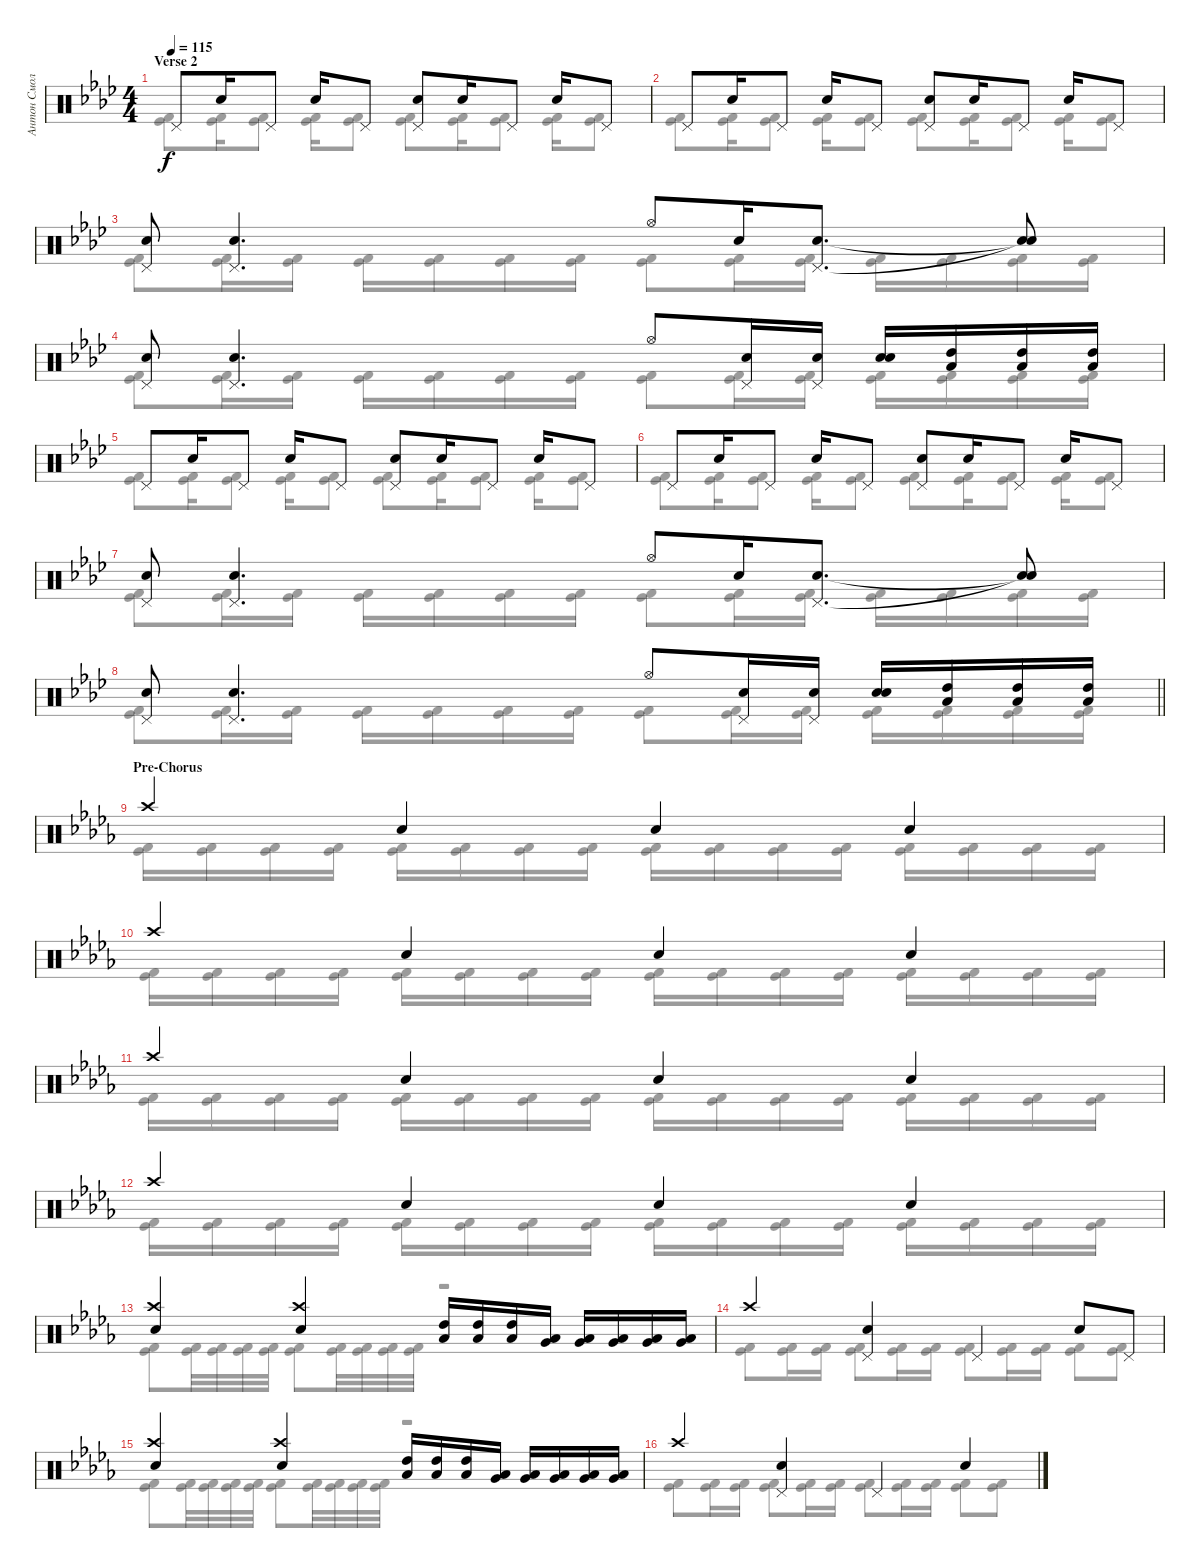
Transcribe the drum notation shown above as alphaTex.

\track ("Антон Смольянин" "Антон Смол") {instrument percussion}
\staff {score}
\articulation defaults
\voice
\ts (4 4)
\section ("" "Verse 2")
\tempo 115
\clef neutral
\ks ab "Pedal Hi-Hat (hit)".8{dy f} "Snare (hit) 2".16 "Pedal Hi-Hat (hit)".8 "Snare (hit) 2".16 "Pedal Hi-Hat (hit)".8
("Snare (hit) 2" "Pedal Hi-Hat (hit)").8 "Snare (hit) 2".16 "Pedal Hi-Hat (hit)".8 "Snare (hit) 2".16 "Pedal Hi-Hat (hit)".8 |
"Pedal Hi-Hat (hit)".8 "Snare (hit) 2".16 "Pedal Hi-Hat (hit)".8 "Snare (hit) 2".16 "Pedal Hi-Hat (hit)".8 ("Snare (hit) 2" "Pedal Hi-Hat (hit)").8 "Snare (hit) 2".16 "Pedal Hi-Hat (hit)".8 "Snare (hit) 2".16 "Pedal Hi-Hat (hit)".8 |
("Snare (hit) 2" "Pedal Hi-Hat (hit)").8 ("Snare (hit) 2" "Pedal Hi-Hat (hit)").4{d} "Hi-Hat (open)".8 "Snare (hit) 2".16 ("Snare (hit) 2" "Pedal Hi-Hat (hit)").8{d} ("Snare (hit)"{t} "Snare (hit)"{t}).8 |
("Snare (hit) 2" "Pedal Hi-Hat (hit)").8 ("Snare (hit) 2" "Pedal Hi-Hat (hit)").4{d} "Hi-Hat (open)".8 ("Snare (hit) 2" "Pedal Hi-Hat (hit)").16 ("Snare (hit) 2" "Pedal Hi-Hat (hit)").16 ("Snare (hit) 2" "Snare (hit) 2").16 ("Low Tom (hit)" "High Tom (hit)").16 ("Low Tom (hit)" "High Tom (hit)").16 ("Low Tom (hit)" "High Tom (hit)").16 |
"Pedal Hi-Hat (hit)".8 "Snare (hit) 2".16 "Pedal Hi-Hat (hit)".8 "Snare (hit) 2".16 "Pedal Hi-Hat (hit)".8 ("Snare (hit) 2" "Pedal Hi-Hat (hit)").8 "Snare (hit) 2".16 "Pedal Hi-Hat (hit)".8 "Snare (hit) 2".16 "Pedal Hi-Hat (hit)".8 |
"Pedal Hi-Hat (hit)".8 "Snare (hit) 2".16 "Pedal Hi-Hat (hit)".8 "Snare (hit) 2".16 "Pedal Hi-Hat (hit)".8 ("Snare (hit) 2" "Pedal Hi-Hat (hit)").8 "Snare (hit) 2".16 "Pedal Hi-Hat (hit)".8 "Snare (hit) 2".16 "Pedal Hi-Hat (hit)".8 |
("Snare (hit) 2" "Pedal Hi-Hat (hit)").8 ("Snare (hit) 2" "Pedal Hi-Hat (hit)").4{d} "Hi-Hat (open)".8 "Snare (hit) 2".16 ("Snare (hit) 2" "Pedal Hi-Hat (hit)").8{d} ("Snare (hit)"{t} "Snare (hit)"{t}).8 |
\barLineRight lightlight
("Snare (hit) 2" "Pedal Hi-Hat (hit)").8 ("Snare (hit) 2" "Pedal Hi-Hat (hit)").4{d} "Hi-Hat (open)".8 ("Snare (hit) 2" "Pedal Hi-Hat (hit)").16 ("Snare (hit) 2" "Pedal Hi-Hat (hit)").16 ("Snare (hit) 2" "Snare (hit) 2").16 ("Low Tom (hit)" "High Tom (hit)").16 ("Low Tom (hit)" "High Tom (hit)").16 ("Low Tom (hit)" "High Tom (hit)").16 |
\section ("" "Pre-Chorus")
\ks db "Crash high (hit)".4 "Electric Snare (hit)".4 "Electric Snare (hit)".4 "Electric Snare (hit)".4
|
"Crash high (hit)".4 "Electric Snare (hit)".4 "Electric Snare (hit)".4 "Electric Snare (hit)".4 |
"Crash high (hit)".4 "Electric Snare (hit)".4 "Electric Snare (hit)".4 "Electric Snare (hit)".4 |
"Crash high (hit)".4 "Electric Snare (hit)".4 "Electric Snare (hit)".4 "Electric Snare (hit)".4 |
("Electric Snare (hit)" "Crash high (hit)").4 ("Electric Snare (hit)" "Crash high (hit)").4 ("High Tom (hit)" "Low Tom (hit)").16 ("High Tom (hit)" "Low Tom (hit)").16 ("High Tom (hit)" "Low Tom (hit)").16 ("Low Tom (hit)" "Very Low Tom (hit)").16 ("Low Tom (hit)" "Very Low Tom (hit)").16 ("Low Tom (hit)" "Very Low Tom (hit)").16 ("Low Tom (hit)" "Very Low Tom (hit)").16 ("Low Tom (hit)" "Very Low Tom (hit)").16 |
"Crash high (hit)".4 ("Electric Snare (hit)" "Pedal Hi-Hat (hit)").4 "Pedal Hi-Hat (hit)".4 "Electric Snare (hit)".8 "Pedal Hi-Hat (hit)".8 |
("Electric Snare (hit)" "Crash high (hit)").4 ("Electric Snare (hit)" "Crash high (hit)").4 ("High Tom (hit)" "Low Tom (hit)").16 ("High Tom (hit)" "Low Tom (hit)").16 ("High Tom (hit)" "Low Tom (hit)").16 ("Low Tom (hit)" "Very Low Tom (hit)").16 ("Low Tom (hit)" "Very Low Tom (hit)").16 ("Low Tom (hit)" "Very Low Tom (hit)").16 ("Low Tom (hit)" "Very Low Tom (hit)").16 ("Low Tom (hit)" "Very Low Tom (hit)").16 |
"Crash high (hit)".4 ("Electric Snare (hit)" "Pedal Hi-Hat (hit)").4 "Pedal Hi-Hat (hit)".4 "Electric Snare (hit)".4
\voice
\clef neutral
\ottava regular
\simile none
\ks ab
("Kick (hit) 2" "Kick (hit)").8{dy f} ("Kick (hit) 2" "Kick (hit)").16 ("Kick (hit) 2" "Kick (hit)").8 ("Kick (hit) 2" "Kick (hit)").16 ("Kick (hit) 2" "Kick (hit)").8 ("Kick (hit) 2" "Kick (hit)").8 ("Kick (hit) 2" "Kick (hit)").16 ("Kick (hit) 2" "Kick (hit)").8 ("Kick (hit) 2" "Kick (hit)").16 ("Kick (hit) 2" "Kick (hit)").8 |
("Kick (hit) 2" "Kick (hit)").8 ("Kick (hit) 2" "Kick (hit)").16 ("Kick (hit) 2" "Kick (hit)").8 ("Kick (hit) 2" "Kick (hit)").16 ("Kick (hit) 2" "Kick (hit)").8 ("Kick (hit) 2" "Kick (hit)").8 ("Kick (hit) 2" "Kick (hit)").16 ("Kick (hit) 2" "Kick (hit)").8 ("Kick (hit) 2" "Kick (hit)").16 ("Kick (hit) 2" "Kick (hit)").8 |
("Kick (hit) 2" "Kick (hit)").8 ("Kick (hit) 2" "Kick (hit)").16 ("Kick (hit) 2" "Kick (hit)").16 ("Kick (hit) 2" "Kick (hit)").16 ("Kick (hit) 2" "Kick (hit)").16 ("Kick (hit) 2" "Kick (hit)").16 ("Kick (hit) 2" "Kick (hit)").16 ("Kick (hit) 2" "Kick (hit)").8 ("Kick (hit) 2" "Kick (hit)").16 ("Kick (hit) 2" "Kick (hit)").16 ("Kick (hit) 2" "Kick (hit)").16 ("Kick (hit) 2" "Kick (hit)").16 ("Kick (hit) 2" "Kick (hit)").16 ("Kick (hit) 2" "Kick (hit)").16 |
("Kick (hit) 2" "Kick (hit)").8 ("Kick (hit) 2" "Kick (hit)").16 ("Kick (hit) 2" "Kick (hit)").16 ("Kick (hit) 2" "Kick (hit)").16 ("Kick (hit) 2" "Kick (hit)").16 ("Kick (hit) 2" "Kick (hit)").16 ("Kick (hit) 2" "Kick (hit)").16 ("Kick (hit) 2" "Kick (hit)").8 ("Kick (hit) 2" "Kick (hit)").16 ("Kick (hit) 2" "Kick (hit)").16 ("Kick (hit) 2" "Kick (hit)").16 ("Kick (hit) 2" "Kick (hit)").16 ("Kick (hit) 2" "Kick (hit)").16 ("Kick (hit) 2" "Kick (hit)").16 |
("Kick (hit) 2" "Kick (hit)").8 ("Kick (hit) 2" "Kick (hit)").16 ("Kick (hit) 2" "Kick (hit)").8 ("Kick (hit) 2" "Kick (hit)").16 ("Kick (hit) 2" "Kick (hit)").8 ("Kick (hit) 2" "Kick (hit)").8 ("Kick (hit) 2" "Kick (hit)").16 ("Kick (hit) 2" "Kick (hit)").8 ("Kick (hit) 2" "Kick (hit)").16 ("Kick (hit) 2" "Kick (hit)").8 |
("Kick (hit) 2" "Kick (hit)").8 ("Kick (hit) 2" "Kick (hit)").16 ("Kick (hit) 2" "Kick (hit)").8 ("Kick (hit) 2" "Kick (hit)").16 ("Kick (hit) 2" "Kick (hit)").8 ("Kick (hit) 2" "Kick (hit)").8 ("Kick (hit) 2" "Kick (hit)").16 ("Kick (hit) 2" "Kick (hit)").8 ("Kick (hit) 2" "Kick (hit)").16 ("Kick (hit) 2" "Kick (hit)").8 |
("Kick (hit) 2" "Kick (hit)").8 ("Kick (hit) 2" "Kick (hit)").16 ("Kick (hit) 2" "Kick (hit)").16 ("Kick (hit) 2" "Kick (hit)").16 ("Kick (hit) 2" "Kick (hit)").16 ("Kick (hit) 2" "Kick (hit)").16 ("Kick (hit) 2" "Kick (hit)").16 ("Kick (hit) 2" "Kick (hit)").8 ("Kick (hit) 2" "Kick (hit)").16 ("Kick (hit) 2" "Kick (hit)").16 ("Kick (hit) 2" "Kick (hit)").16 ("Kick (hit) 2" "Kick (hit)").16 ("Kick (hit) 2" "Kick (hit)").16 ("Kick (hit) 2" "Kick (hit)").16 |
\barLineRight lightlight
("Kick (hit) 2" "Kick (hit)").8 ("Kick (hit) 2" "Kick (hit)").16 ("Kick (hit) 2" "Kick (hit)").16 ("Kick (hit) 2" "Kick (hit)").16 ("Kick (hit) 2" "Kick (hit)").16 ("Kick (hit) 2" "Kick (hit)").16 ("Kick (hit) 2" "Kick (hit)").16 ("Kick (hit) 2" "Kick (hit)").8 ("Kick (hit) 2" "Kick (hit)").16 ("Kick (hit) 2" "Kick (hit)").16 ("Kick (hit) 2" "Kick (hit)").16 ("Kick (hit) 2" "Kick (hit)").16 ("Kick (hit) 2" "Kick (hit)").16 ("Kick (hit) 2" "Kick (hit)").16 |
\ks db
("Kick (hit) 2" "Kick (hit)").16 ("Kick (hit) 2" "Kick (hit)").16 ("Kick (hit) 2" "Kick (hit)").16 ("Kick (hit) 2" "Kick (hit)").16 ("Kick (hit) 2" "Kick (hit)").16 ("Kick (hit) 2" "Kick (hit)").16 ("Kick (hit) 2" "Kick (hit)").16 ("Kick (hit) 2" "Kick (hit)").16 ("Kick (hit) 2" "Kick (hit)").16 ("Kick (hit) 2" "Kick (hit)").16 ("Kick (hit) 2" "Kick (hit)").16 ("Kick (hit) 2" "Kick (hit)").16 ("Kick (hit) 2" "Kick (hit)").16 ("Kick (hit) 2" "Kick (hit)").16 ("Kick (hit) 2" "Kick (hit)").16 ("Kick (hit) 2" "Kick (hit)").16 |
("Kick (hit) 2" "Kick (hit)").16 ("Kick (hit) 2" "Kick (hit)").16 ("Kick (hit) 2" "Kick (hit)").16 ("Kick (hit) 2" "Kick (hit)").16 ("Kick (hit) 2" "Kick (hit)").16 ("Kick (hit) 2" "Kick (hit)").16 ("Kick (hit) 2" "Kick (hit)").16 ("Kick (hit) 2" "Kick (hit)").16 ("Kick (hit) 2" "Kick (hit)").16 ("Kick (hit) 2" "Kick (hit)").16 ("Kick (hit) 2" "Kick (hit)").16 ("Kick (hit) 2" "Kick (hit)").16 ("Kick (hit) 2" "Kick (hit)").16 ("Kick (hit) 2" "Kick (hit)").16 ("Kick (hit) 2" "Kick (hit)").16 ("Kick (hit) 2" "Kick (hit)").16 |
("Kick (hit) 2" "Kick (hit)").16 ("Kick (hit) 2" "Kick (hit)").16 ("Kick (hit) 2" "Kick (hit)").16 ("Kick (hit) 2" "Kick (hit)").16 ("Kick (hit) 2" "Kick (hit)").16 ("Kick (hit) 2" "Kick (hit)").16 ("Kick (hit) 2" "Kick (hit)").16 ("Kick (hit) 2" "Kick (hit)").16 ("Kick (hit) 2" "Kick (hit)").16 ("Kick (hit) 2" "Kick (hit)").16 ("Kick (hit) 2" "Kick (hit)").16 ("Kick (hit) 2" "Kick (hit)").16 ("Kick (hit) 2" "Kick (hit)").16 ("Kick (hit) 2" "Kick (hit)").16 ("Kick (hit) 2" "Kick (hit)").16 ("Kick (hit) 2" "Kick (hit)").16 |
("Kick (hit) 2" "Kick (hit)").16 ("Kick (hit) 2" "Kick (hit)").16 ("Kick (hit) 2" "Kick (hit)").16 ("Kick (hit) 2" "Kick (hit)").16 ("Kick (hit) 2" "Kick (hit)").16 ("Kick (hit) 2" "Kick (hit)").16 ("Kick (hit) 2" "Kick (hit)").16 ("Kick (hit) 2" "Kick (hit)").16 ("Kick (hit) 2" "Kick (hit)").16 ("Kick (hit) 2" "Kick (hit)").16 ("Kick (hit) 2" "Kick (hit)").16 ("Kick (hit) 2" "Kick (hit)").16 ("Kick (hit) 2" "Kick (hit)").16 ("Kick (hit) 2" "Kick (hit)").16 ("Kick (hit) 2" "Kick (hit)").16 ("Kick (hit) 2" "Kick (hit)").16 |
("Kick (hit) 2" "Kick (hit)").8 ("Kick (hit) 2" "Kick (hit)").32 ("Kick (hit) 2" "Kick (hit)").32 ("Kick (hit) 2" "Kick (hit)").32 ("Kick (hit) 2" "Kick (hit)").32 ("Kick (hit) 2" "Kick (hit)").8 ("Kick (hit) 2" "Kick (hit)").32 ("Kick (hit) 2" "Kick (hit)").32 ("Kick (hit) 2" "Kick (hit)").32 ("Kick (hit) 2" "Kick (hit)").32 r.2 |
("Kick (hit) 2" "Kick (hit)").8 ("Kick (hit) 2" "Kick (hit)").16 ("Kick (hit) 2" "Kick (hit)").16 ("Kick (hit) 2" "Kick (hit)").8 ("Kick (hit) 2" "Kick (hit)").16 ("Kick (hit) 2" "Kick (hit)").16 ("Kick (hit) 2" "Kick (hit)").8 ("Kick (hit) 2" "Kick (hit)").16 ("Kick (hit) 2" "Kick (hit)").16 ("Kick (hit) 2" "Kick (hit)").8 ("Kick (hit) 2" "Kick (hit)").8 |
("Kick (hit) 2" "Kick (hit)").8 ("Kick (hit) 2" "Kick (hit)").32 ("Kick (hit) 2" "Kick (hit)").32 ("Kick (hit) 2" "Kick (hit)").32 ("Kick (hit) 2" "Kick (hit)").32 ("Kick (hit) 2" "Kick (hit)").8 ("Kick (hit) 2" "Kick (hit)").32 ("Kick (hit) 2" "Kick (hit)").32 ("Kick (hit) 2" "Kick (hit)").32 ("Kick (hit) 2" "Kick (hit)").32 r.2 |
("Kick (hit) 2" "Kick (hit)").8 ("Kick (hit) 2" "Kick (hit)").16 ("Kick (hit) 2" "Kick (hit)").16 ("Kick (hit) 2" "Kick (hit)").8 ("Kick (hit) 2" "Kick (hit)").16 ("Kick (hit) 2" "Kick (hit)").16 ("Kick (hit) 2" "Kick (hit)").8 ("Kick (hit) 2" "Kick (hit)").16 ("Kick (hit) 2" "Kick (hit)").16 ("Kick (hit) 2" "Kick (hit)").8 ("Kick (hit) 2" "Kick (hit)").8
